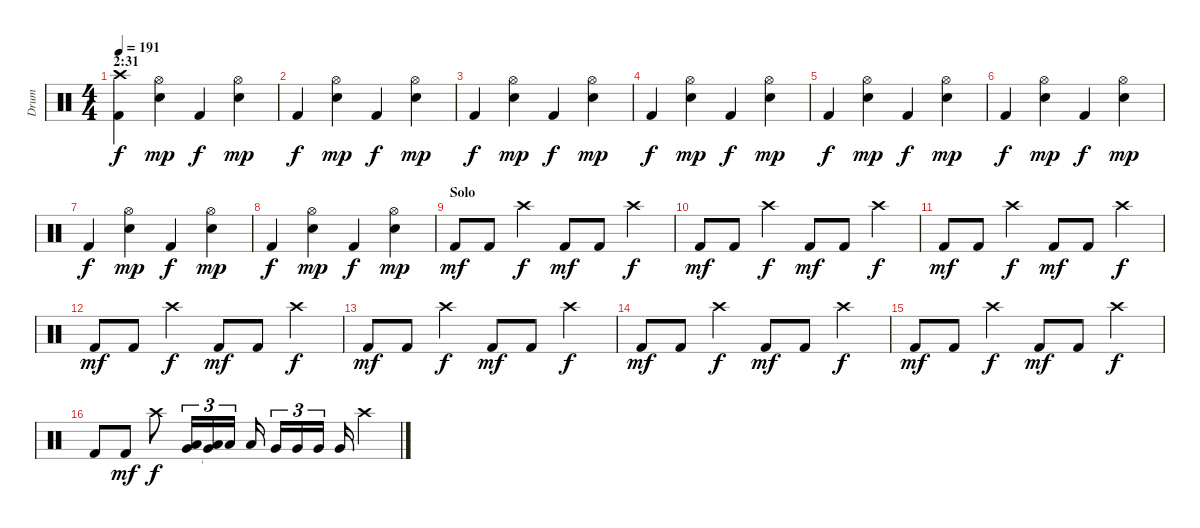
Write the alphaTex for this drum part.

\track ("Drum" "Drum") {instrument percussion}
\staff {score}
\articulation defaults
\ts (4 4)
\section ("" "2:31")
\tempo 191
\clef neutral
\ks c
("Kick (hit) 2" "Crash high (hit)"{t}).4{dy f} ("Snare (hit) 2" "Hi-Hat (open)").4{dy mp} "Kick (hit) 2".4{dy f} ("Snare (hit) 2" "Hi-Hat (open)").4{dy mp} |
"Kick (hit) 2".4{dy f} ("Snare (hit) 2" "Hi-Hat (open)").4{dy mp} "Kick (hit) 2".4{dy f} ("Snare (hit) 2" "Hi-Hat (open)").4{dy mp} |
"Kick (hit) 2".4{dy f} ("Snare (hit) 2" "Hi-Hat (open)").4{dy mp} "Kick (hit) 2".4{dy f} ("Snare (hit) 2" "Hi-Hat (open)").4{dy mp} |
"Kick (hit) 2".4{dy f} ("Snare (hit) 2" "Hi-Hat (open)").4{dy mp} "Kick (hit) 2".4{dy f} ("Snare (hit) 2" "Hi-Hat (open)").4{dy mp} |
"Kick (hit) 2".4{dy f} ("Snare (hit) 2" "Hi-Hat (open)").4{dy mp} "Kick (hit) 2".4{dy f} ("Snare (hit) 2" "Hi-Hat (open)").4{dy mp} |
"Kick (hit) 2".4{dy f} ("Snare (hit) 2" "Hi-Hat (open)").4{dy mp} "Kick (hit) 2".4{dy f} ("Snare (hit) 2" "Hi-Hat (open)").4{dy mp} |
"Kick (hit) 2".4{dy f} ("Snare (hit) 2" "Hi-Hat (open)").4{dy mp} "Kick (hit) 2".4{dy f} ("Snare (hit) 2" "Hi-Hat (open)").4{dy mp} |
"Kick (hit) 2".4{dy f} ("Snare (hit) 2" "Hi-Hat (open)").4{dy mp} "Kick (hit) 2".4{dy f} ("Snare (hit) 2" "Hi-Hat (open)").4{dy mp} |
\section ("" "Solo")
"Kick (hit) 2".8{dy mf} "Kick (hit) 2".8 "Crash high (hit)".4{dy f} "Kick (hit) 2".8{dy mf} "Kick (hit) 2".8 "Crash high (hit)".4{dy f} |
"Kick (hit) 2".8{dy mf} "Kick (hit) 2".8 "Crash high (hit)".4{dy f} "Kick (hit) 2".8{dy mf} "Kick (hit) 2".8 "Crash high (hit)".4{dy f} |
"Kick (hit) 2".8{dy mf} "Kick (hit) 2".8 "Crash high (hit)".4{dy f} "Kick (hit) 2".8{dy mf} "Kick (hit) 2".8 "Crash high (hit)".4{dy f} |
"Kick (hit) 2".8{dy mf} "Kick (hit) 2".8 "Crash high (hit)".4{dy f} "Kick (hit) 2".8{dy mf} "Kick (hit) 2".8 "Crash high (hit)".4{dy f} |
"Kick (hit) 2".8{dy mf} "Kick (hit) 2".8 "Crash high (hit)".4{dy f} "Kick (hit) 2".8{dy mf} "Kick (hit) 2".8 "Crash high (hit)".4{dy f} |
"Kick (hit) 2".8{dy mf} "Kick (hit) 2".8 "Crash high (hit)".4{dy f} "Kick (hit) 2".8{dy mf} "Kick (hit) 2".8 "Crash high (hit)".4{dy f} |
"Kick (hit) 2".8{dy mf} "Kick (hit) 2".8 "Crash high (hit)".4{dy f} "Kick (hit) 2".8{dy mf} "Kick (hit) 2".8 "Crash high (hit)".4{dy f} |
"Kick (hit) 2".8 "Kick (hit) 2".8{dy mf} "Crash high (hit)".8{dy f} ("Low Floor Tom (hit)" "Very Low Tom (hit)").16{tu (3 2)} ("Low Floor Tom (hit)" "Very Low Tom (hit)"{t}).16{tu (3 2)} "Low Floor Tom (hit)".16{tu (3 2)} "Low Floor Tom (hit)".16 "Very Low Tom (hit)".16{tu (3 2)} "Very Low Tom (hit)".16{tu (3 2)} "Very Low Tom (hit)".16{tu (3 2)} "Very Low Tom (hit)".16 "Crash high (hit)".4
